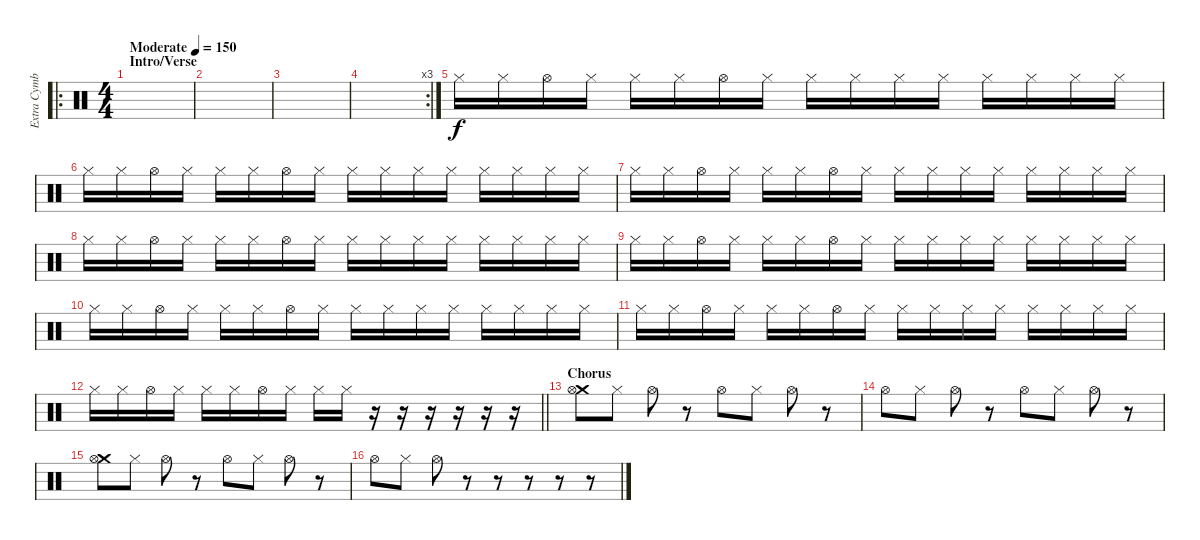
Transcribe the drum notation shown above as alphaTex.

\track ("Extra Cymbals" "Extra Cymb") {instrument percussion bank 255}
\staff {score}
\articulation defaults
\ro
\ts (4 4)
\section ("" "Intro/Verse")
\tempo (150 "Moderate")
\clef neutral
\ks c
|
|
|
\rc 3
|
"Hi-Hat (closed)".16 "Hi-Hat (closed)".16 "Hi-Hat (open)".16 "Hi-Hat (closed)".16 "Hi-Hat (closed)".16 "Hi-Hat (closed)".16 "Hi-Hat (open)".16 "Hi-Hat (closed)".16 "Hi-Hat (closed)".16 "Hi-Hat (closed)".16 "Hi-Hat (closed)".16 "Hi-Hat (closed)".16 "Hi-Hat (closed)".16 "Hi-Hat (closed)".16 "Hi-Hat (closed)".16 "Hi-Hat (closed)".16 |
"Hi-Hat (closed)".16 "Hi-Hat (closed)".16 "Hi-Hat (open)".16 "Hi-Hat (closed)".16 "Hi-Hat (closed)".16 "Hi-Hat (closed)".16 "Hi-Hat (open)".16 "Hi-Hat (closed)".16 "Hi-Hat (closed)".16 "Hi-Hat (closed)".16 "Hi-Hat (closed)".16 "Hi-Hat (closed)".16 "Hi-Hat (closed)".16 "Hi-Hat (closed)".16 "Hi-Hat (closed)".16 "Hi-Hat (closed)".16 |
"Hi-Hat (closed)".16 "Hi-Hat (closed)".16 "Hi-Hat (open)".16 "Hi-Hat (closed)".16 "Hi-Hat (closed)".16 "Hi-Hat (closed)".16 "Hi-Hat (open)".16 "Hi-Hat (closed)".16 "Hi-Hat (closed)".16 "Hi-Hat (closed)".16 "Hi-Hat (closed)".16 "Hi-Hat (closed)".16 "Hi-Hat (closed)".16 "Hi-Hat (closed)".16 "Hi-Hat (closed)".16 "Hi-Hat (closed)".16 |
"Hi-Hat (closed)".16 "Hi-Hat (closed)".16 "Hi-Hat (open)".16 "Hi-Hat (closed)".16 "Hi-Hat (closed)".16 "Hi-Hat (closed)".16 "Hi-Hat (open)".16 "Hi-Hat (closed)".16 "Hi-Hat (closed)".16 "Hi-Hat (closed)".16 "Hi-Hat (closed)".16 "Hi-Hat (closed)".16 "Hi-Hat (closed)".16 "Hi-Hat (closed)".16 "Hi-Hat (closed)".16 "Hi-Hat (closed)".16 |
"Hi-Hat (closed)".16 "Hi-Hat (closed)".16 "Hi-Hat (open)".16 "Hi-Hat (closed)".16 "Hi-Hat (closed)".16 "Hi-Hat (closed)".16 "Hi-Hat (open)".16 "Hi-Hat (closed)".16 "Hi-Hat (closed)".16 "Hi-Hat (closed)".16 "Hi-Hat (closed)".16 "Hi-Hat (closed)".16 "Hi-Hat (closed)".16 "Hi-Hat (closed)".16 "Hi-Hat (closed)".16 "Hi-Hat (closed)".16 |
"Hi-Hat (closed)".16 "Hi-Hat (closed)".16 "Hi-Hat (open)".16 "Hi-Hat (closed)".16 "Hi-Hat (closed)".16 "Hi-Hat (closed)".16 "Hi-Hat (open)".16 "Hi-Hat (closed)".16 "Hi-Hat (closed)".16 "Hi-Hat (closed)".16 "Hi-Hat (closed)".16 "Hi-Hat (closed)".16 "Hi-Hat (closed)".16 "Hi-Hat (closed)".16 "Hi-Hat (closed)".16 "Hi-Hat (closed)".16 |
"Hi-Hat (closed)".16 "Hi-Hat (closed)".16 "Hi-Hat (open)".16 "Hi-Hat (closed)".16 "Hi-Hat (closed)".16 "Hi-Hat (closed)".16 "Hi-Hat (open)".16 "Hi-Hat (closed)".16 "Hi-Hat (closed)".16 "Hi-Hat (closed)".16 "Hi-Hat (closed)".16 "Hi-Hat (closed)".16 "Hi-Hat (closed)".16 "Hi-Hat (closed)".16 "Hi-Hat (closed)".16 "Hi-Hat (closed)".16 |
\barLineRight lightlight "Hi-Hat (closed)".16 "Hi-Hat (closed)".16 "Hi-Hat (open)".16 "Hi-Hat (closed)".16 "Hi-Hat (closed)".16 "Hi-Hat (closed)".16 "Hi-Hat (open)".16 "Hi-Hat (closed)".16 "Hi-Hat (closed)".16 "Hi-Hat (closed)".16
r.16 r.16 r.16 r.16 r.16 r.16 |
\section ("" "Chorus")
("Crash medium (hit)" "Hi-Hat (open)").8 "Hi-Hat (closed)".8 "Hi-Hat (open)".8 r.8 "Hi-Hat (open)".8 "Hi-Hat (closed)".8 "Hi-Hat (open)".8 r.8 |
"Hi-Hat (open)".8 "Hi-Hat (closed)".8 "Hi-Hat (open)".8 r.8 "Hi-Hat (open)".8 "Hi-Hat (closed)".8 "Hi-Hat (open)".8 r.8 |
("Crash medium (hit)" "Hi-Hat (open)").8 "Hi-Hat (closed)".8 "Hi-Hat (open)".8 r.8 "Hi-Hat (open)".8 "Hi-Hat (closed)".8 "Hi-Hat (open)".8 r.8 |
"Hi-Hat (open)".8 "Hi-Hat (closed)".8 "Hi-Hat (open)".8 r.8 r.8 r.8 r.8 r.8
